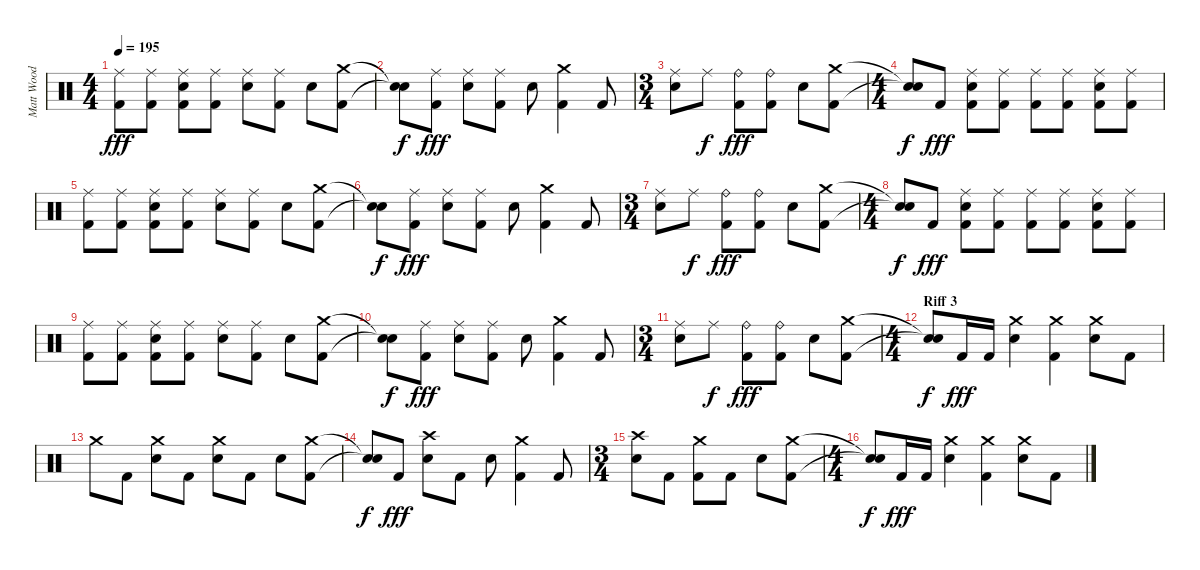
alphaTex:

\track ("Matt Wood" "Matt Wood") {instrument percussion}
\staff {score}
\articulation defaults
\ts (4 4)
\tempo 195
\clef neutral
\ks c
("Ride (middle)" "Kick (hit) 2").8{dy fff} ("Ride (middle)" "Kick (hit) 2").8 ("Ride (middle)" "Snare (hit) 2" "Kick (hit) 2").8 ("Ride (middle)" "Kick (hit) 2").8 ("Ride (middle)" "Snare (hit) 2").8 ("Ride (middle)" "Kick (hit) 2").8 "Snare (hit) 2".8 ("Crash medium (hit)" "Kick (hit) 2").8 |
("Snare (hit)"{t} "Snare (hit)"{t}).8{dy f} ("Ride (middle)" "Kick (hit) 2").8{dy fff} ("Ride (middle)" "Snare (hit) 2").8 ("Ride (middle)" "Kick (hit) 2").8 "Snare (hit) 2".8 ("Crash medium (hit)" "Kick (hit) 2").4 "Kick (hit) 2".8 |
\ts (3 4)
("Ride (middle)" "Snare (hit) 2").8 "Ride (middle)".8{dy f} ("Ride (bell)" "Kick (hit) 2").8{dy fff} ("Ride (bell)" "Kick (hit) 2").8 "Snare (hit) 2".8 ("Crash medium (hit)" "Kick (hit) 2").8 |
\ts (4 4)
("Snare (hit)"{t} "Snare (hit)"{t}).8{dy f} "Kick (hit) 2".8{dy fff} ("Ride (middle)" "Snare (hit) 2" "Kick (hit) 2").8 ("Ride (middle)" "Kick (hit) 2").8 ("Ride (middle)" "Kick (hit) 2").8 ("Ride (middle)" "Kick (hit) 2").8 ("Ride (middle)" "Snare (hit) 2" "Kick (hit) 2").8 ("Ride (middle)" "Kick (hit) 2").8 |
("Ride (middle)" "Kick (hit) 2").8 ("Ride (middle)" "Kick (hit) 2").8 ("Ride (middle)" "Snare (hit) 2" "Kick (hit) 2").8 ("Ride (middle)" "Kick (hit) 2").8 ("Ride (middle)" "Snare (hit) 2").8 ("Ride (middle)" "Kick (hit) 2").8 "Snare (hit) 2".8 ("Crash medium (hit)" "Kick (hit) 2").8 |
("Snare (hit)"{t} "Snare (hit)"{t}).8{dy f} ("Ride (middle)" "Kick (hit) 2").8{dy fff} ("Ride (middle)" "Snare (hit) 2").8 ("Ride (middle)" "Kick (hit) 2").8 "Snare (hit) 2".8 ("Crash medium (hit)" "Kick (hit) 2").4 "Kick (hit) 2".8 |
\ts (3 4)
("Ride (middle)" "Snare (hit) 2").8 "Ride (middle)".8{dy f} ("Ride (bell)" "Kick (hit) 2").8{dy fff} ("Ride (bell)" "Kick (hit) 2").8 "Snare (hit) 2".8 ("Crash medium (hit)" "Kick (hit) 2").8 |
\ts (4 4)
("Snare (hit)"{t} "Snare (hit)"{t}).8{dy f} "Kick (hit) 2".8{dy fff} ("Ride (middle)" "Snare (hit) 2" "Kick (hit) 2").8 ("Ride (middle)" "Kick (hit) 2").8 ("Ride (middle)" "Kick (hit) 2").8 ("Ride (middle)" "Kick (hit) 2").8 ("Ride (middle)" "Snare (hit) 2" "Kick (hit) 2").8 ("Ride (middle)" "Kick (hit) 2").8 |
("Ride (middle)" "Kick (hit) 2").8 ("Ride (middle)" "Kick (hit) 2").8 ("Ride (middle)" "Snare (hit) 2" "Kick (hit) 2").8 ("Ride (middle)" "Kick (hit) 2").8 ("Ride (middle)" "Snare (hit) 2").8 ("Ride (middle)" "Kick (hit) 2").8 "Snare (hit) 2".8 ("Crash medium (hit)" "Kick (hit) 2").8 |
("Snare (hit)"{t} "Snare (hit)"{t}).8{dy f} ("Ride (middle)" "Kick (hit) 2").8{dy fff} ("Ride (middle)" "Snare (hit) 2").8 ("Ride (middle)" "Kick (hit) 2").8 "Snare (hit) 2".8 ("Crash medium (hit)" "Kick (hit) 2").4 "Kick (hit) 2".8 |
\ts (3 4)
("Ride (middle)" "Snare (hit) 2").8 "Ride (middle)".8{dy f} ("Ride (bell)" "Kick (hit) 2").8{dy fff} ("Ride (bell)" "Kick (hit) 2").8 "Snare (hit) 2".8 ("Crash medium (hit)" "Kick (hit) 2").8 |
\ts (4 4)
\section ("" "Riff 3")
("Snare (hit)"{t} "Snare (hit)"{t}).8{dy f} "Kick (hit) 2".16{dy fff} "Kick (hit) 2".16 ("Crash medium (hit)" "Snare (hit) 2").4 ("Crash medium (hit)" "Kick (hit) 2").4 ("Crash medium (hit)" "Snare (hit) 2").8 "Kick (hit) 2".8 |
"Crash medium (hit)".8 "Kick (hit) 2".8 ("Crash medium (hit)" "Snare (hit) 2").8 "Kick (hit) 2".8 ("Crash medium (hit)" "Snare (hit) 2").8 "Kick (hit) 2".8 "Snare (hit) 2".8 ("Crash medium (hit)" "Kick (hit) 2").8 |
("Snare (hit)"{t} "Snare (hit)"{t}).8{dy f} "Kick (hit) 2".8{dy fff} ("Crash high (hit)" "Snare (hit) 2").8 "Kick (hit) 2".8 "Snare (hit) 2".8 ("Crash medium (hit)" "Kick (hit) 2").4 "Kick (hit) 2".8 |
\ts (3 4)
("Crash high (hit)" "Snare (hit) 2").8 "Kick (hit) 2".8 ("Crash medium (hit)" "Kick (hit) 2").8 "Kick (hit) 2".8 "Snare (hit) 2".8 ("Crash medium (hit)" "Kick (hit) 2").8 |
\ts (4 4)
("Snare (hit)"{t} "Snare (hit)"{t}).8{dy f} "Kick (hit) 2".16{dy fff} "Kick (hit) 2".16 ("Crash medium (hit)" "Snare (hit) 2").4 ("Crash medium (hit)" "Kick (hit) 2").4 ("Crash medium (hit)" "Snare (hit) 2").8 "Kick (hit) 2".8
